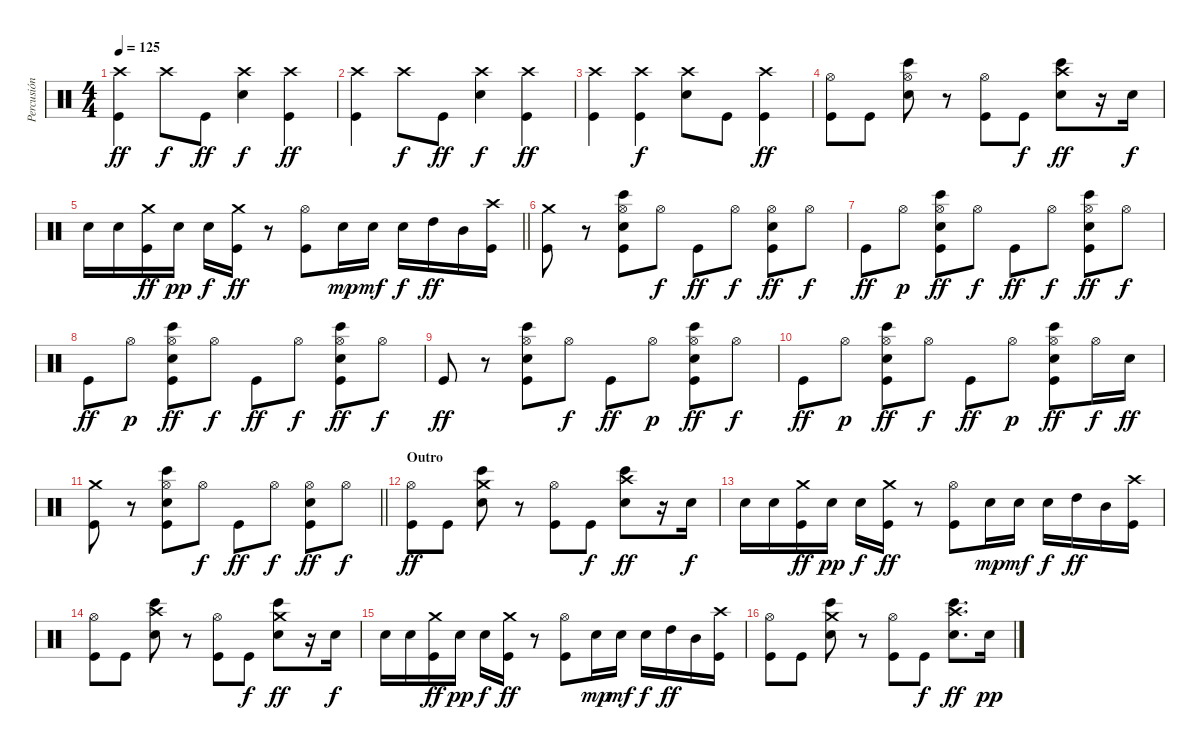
\track ("Percusión" "Percusión") {instrument percussion}
\staff {score}
\articulation defaults
\ts (4 4)
\tempo 125
\clef neutral
\ks c
("Crash high (hit)" "Kick (hit)").4{dy ff} "Crash high (hit)".8{dy f} "Kick (hit)".8{dy ff} ("Crash high (hit)" "Snare (hit) 2").4{dy f} ("Crash high (hit)" "Kick (hit)").4{dy ff} |
("Crash high (hit)" "Kick (hit)").4 "Crash high (hit)".8{dy f} "Kick (hit)".8{dy ff} ("Crash high (hit)" "Snare (hit) 2").4{dy f} ("Crash high (hit)" "Kick (hit)").4{dy ff} |
("Crash high (hit)" "Kick (hit)").4 ("Crash high (hit)" "Kick (hit)").4{dy f} ("Crash high (hit)" "Snare (hit) 2").8 "Kick (hit)".8 ("Crash high (hit)" "Kick (hit)").4{dy ff} |
("Hi-Hat (open)" "Kick (hit)").8 "Kick (hit)".8 ("Hi-Hat (open)" "Bongo High (hit)" "Snare (hit) 2").8 r.8 ("Hi-Hat (open)" "Kick (hit)").8 "Kick (hit)".8{dy f} ("Crash high (hit)" "Bongo High (hit)" "Snare (hit) 2").8{dy ff} r.16 "Snare (hit) 2".16{dy f} |
\barLineRight lightlight "Snare (hit) 2".16 "Snare (hit) 2".16
("Crash medium (hit)" "Kick (hit)").16{dy ff} "Snare (hit) 2".16{dy pp} "Snare (hit) 2".16{dy f} ("Crash medium (hit)" "Kick (hit)").16{dy ff} r.8 ("Hi-Hat (open)" "Kick (hit)").8 "Snare (hit) 2".16{dy mp} "Snare (hit) 2".16{dy mf} "Snare (hit) 2".16{dy f} "High Tom (hit)".16{dy ff} "Mid Tom (hit)".16 ("Crash high (hit)" "Kick (hit)").16 |
("Crash medium (hit)" "Kick (hit)").8 r.8 ("Hi-Hat (open)" "Bongo High (hit)" "Snare (hit) 2" "Kick (hit)").8 "Hi-Hat (open)".8{dy f} "Kick (hit)".8{dy ff} "Hi-Hat (open)".8{dy f} ("Hi-Hat (open)" "Snare (hit) 2" "Kick (hit)").8{dy ff} "Hi-Hat (open)".8{dy f} |
"Kick (hit)".8{dy ff} "Hi-Hat (open)".8{dy p} ("Hi-Hat (open)" "Bongo High (hit)" "Snare (hit) 2" "Kick (hit)").8{dy ff} "Hi-Hat (open)".8{dy f} "Kick (hit)".8{dy ff} "Hi-Hat (open)".8{dy f} ("Hi-Hat (open)" "Bongo High (hit)" "Snare (hit) 2" "Kick (hit)").8{dy ff} "Hi-Hat (open)".8{dy f} |
"Kick (hit)".8{dy ff} "Hi-Hat (open)".8{dy p} ("Hi-Hat (open)" "Bongo High (hit)" "Snare (hit) 2" "Kick (hit)").8{dy ff} "Hi-Hat (open)".8{dy f} "Kick (hit)".8{dy ff} "Hi-Hat (open)".8{dy f} ("Hi-Hat (open)" "Bongo High (hit)" "Snare (hit) 2" "Kick (hit)").8{dy ff} "Hi-Hat (open)".8{dy f} |
"Kick (hit)".8{dy ff} r.8 ("Hi-Hat (open)" "Bongo High (hit)" "Snare (hit) 2" "Kick (hit)").8 "Hi-Hat (open)".8{dy f} "Kick (hit)".8{dy ff} "Hi-Hat (open)".8{dy p} ("Hi-Hat (open)" "Bongo High (hit)" "Snare (hit) 2" "Kick (hit)").8{dy ff} "Hi-Hat (open)".8{dy f} |
"Kick (hit)".8{dy ff} "Hi-Hat (open)".8{dy p} ("Hi-Hat (open)" "Bongo High (hit)" "Snare (hit) 2" "Kick (hit)").8{dy ff} "Hi-Hat (open)".8{dy f} "Kick (hit)".8{dy ff} "Hi-Hat (open)".8{dy p} ("Hi-Hat (open)" "Bongo High (hit)" "Snare (hit) 2" "Kick (hit)").8{dy ff} "Hi-Hat (open)".16{dy f} "Snare (hit) 2".16{dy ff} |
\barLineRight lightlight
("Crash medium (hit)" "Kick (hit)").8 r.8 ("Hi-Hat (open)" "Bongo High (hit)" "Snare (hit) 2" "Kick (hit)").8 "Hi-Hat (open)".8{dy f} "Kick (hit)".8{dy ff} "Hi-Hat (open)".8{dy f} ("Hi-Hat (open)" "Snare (hit) 2" "Kick (hit)").8{dy ff} "Hi-Hat (open)".8{dy f} |
\section ("" "Outro")
("Hi-Hat (open)" "Kick (hit)").8{dy ff} "Kick (hit)".8 ("Crash medium (hit)" "Bongo High (hit)" "Snare (hit) 2").8 r.8 ("Hi-Hat (open)" "Kick (hit)").8 "Kick (hit)".8{dy f} ("Crash high (hit)" "Bongo High (hit)" "Snare (hit) 2").8{dy ff} r.16 "Snare (hit) 2".16{dy f} |
"Snare (hit) 2".16 "Snare (hit) 2".16 ("Crash medium (hit)" "Kick (hit)").16{dy ff} "Snare (hit) 2".16{dy pp} "Snare (hit) 2".16{dy f} ("Crash medium (hit)" "Kick (hit)").16{dy ff} r.8 ("Hi-Hat (open)" "Kick (hit)").8 "Snare (hit) 2".16{dy mp} "Snare (hit) 2".16{dy mf} "Snare (hit) 2".16{dy f} "High Tom (hit)".16{dy ff} "Mid Tom (hit)".16 ("Crash high (hit)" "Kick (hit)").16 |
("Hi-Hat (open)" "Kick (hit)").8 "Kick (hit)".8 ("Crash high (hit)" "Bongo High (hit)" "Snare (hit) 2").8 r.8 ("Hi-Hat (open)" "Kick (hit)").8 "Kick (hit)".8{dy f} ("Crash medium (hit)" "Bongo High (hit)" "Snare (hit) 2").8{dy ff} r.16 "Snare (hit) 2".16{dy f} |
"Snare (hit) 2".16 "Snare (hit) 2".16 ("Crash medium (hit)" "Kick (hit)").16{dy ff} "Snare (hit) 2".16{dy pp} "Snare (hit) 2".16{dy f} ("Crash medium (hit)" "Kick (hit)").16{dy ff} r.8 ("Hi-Hat (open)" "Kick (hit)").8 "Snare (hit) 2".16{dy mp} "Snare (hit) 2".16{dy mf} "Snare (hit) 2".16{dy f} "High Tom (hit)".16{dy ff} "Mid Tom (hit)".16 ("Crash high (hit)" "Kick (hit)").16 |
("Hi-Hat (open)" "Kick (hit)").8 "Kick (hit)".8 ("Crash medium (hit)" "Bongo High (hit)" "Snare (hit) 2").8 r.8 ("Hi-Hat (open)" "Kick (hit)").8 "Kick (hit)".8{dy f} ("Crash high (hit)" "Bongo High (hit)" "Snare (hit) 2").8{d dy ff} "Snare (hit) 2".16{dy pp}
